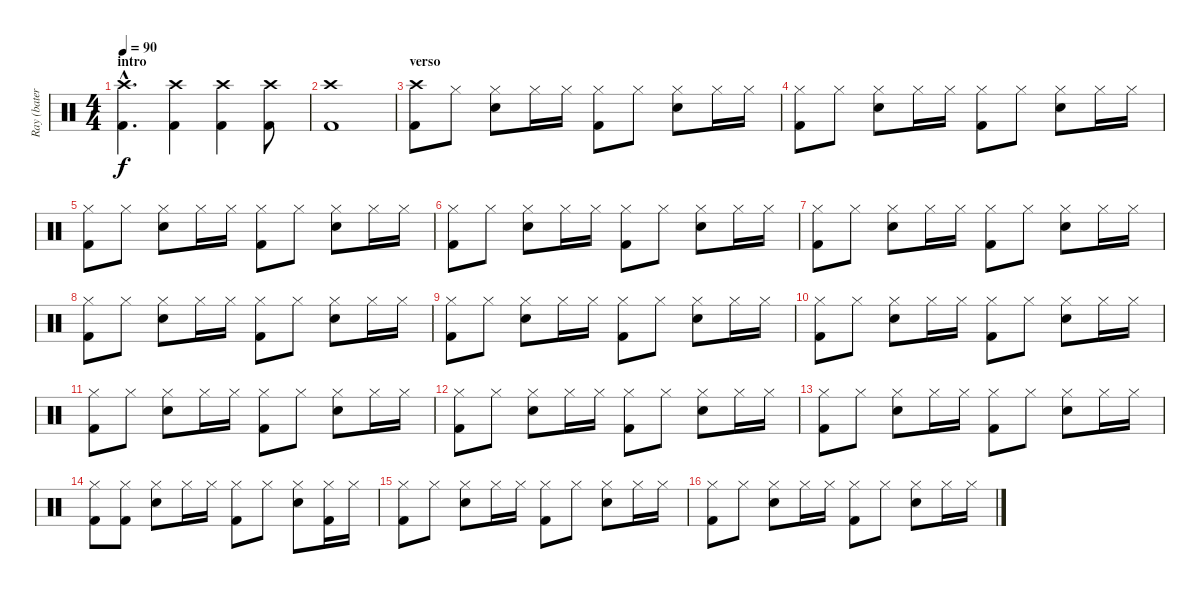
\track ("Ray (batería)" "Ray (bater") {instrument percussion}
\staff {score}
\articulation defaults
\ts (4 4)
\section ("" "intro")
\tempo 90
\clef neutral
\ks c
("Crash high (hit)"{hac} "Kick (hit) 2"{hac}).4{d dy f} ("Crash high (hit)" "Kick (hit) 2").4 ("Crash high (hit)" "Kick (hit) 2").4 ("Crash high (hit)" "Kick (hit) 2").8 |
("Crash high (hit)" "Kick (hit) 2").1 |
\section ("" "verso")
("Crash high (hit)" "Kick (hit) 2").8 "Hi-Hat (closed)".8 ("Hi-Hat (closed)" "Snare (hit) 2").8 "Hi-Hat (closed)".16 "Hi-Hat (closed)".16 ("Hi-Hat (closed)" "Kick (hit) 2").8 "Hi-Hat (closed)".8 ("Hi-Hat (closed)" "Snare (hit) 2").8 "Hi-Hat (closed)".16 "Hi-Hat (closed)".16 |
("Hi-Hat (closed)" "Kick (hit) 2").8 "Hi-Hat (closed)".8 ("Hi-Hat (closed)" "Snare (hit) 2").8 "Hi-Hat (closed)".16 "Hi-Hat (closed)".16 ("Hi-Hat (closed)" "Kick (hit) 2").8 "Hi-Hat (closed)".8 ("Hi-Hat (closed)" "Snare (hit) 2").8 "Hi-Hat (closed)".16 "Hi-Hat (closed)".16 |
("Hi-Hat (closed)" "Kick (hit) 2").8 "Hi-Hat (closed)".8 ("Hi-Hat (closed)" "Snare (hit) 2").8 "Hi-Hat (closed)".16 "Hi-Hat (closed)".16 ("Hi-Hat (closed)" "Kick (hit) 2").8 "Hi-Hat (closed)".8 ("Hi-Hat (closed)" "Snare (hit) 2").8 "Hi-Hat (closed)".16 "Hi-Hat (closed)".16 |
("Hi-Hat (closed)" "Kick (hit) 2").8 "Hi-Hat (closed)".8 ("Hi-Hat (closed)" "Snare (hit) 2").8 "Hi-Hat (closed)".16 "Hi-Hat (closed)".16 ("Hi-Hat (closed)" "Kick (hit) 2").8 "Hi-Hat (closed)".8 ("Hi-Hat (closed)" "Snare (hit) 2").8 "Hi-Hat (closed)".16 "Hi-Hat (closed)".16 |
("Hi-Hat (closed)" "Kick (hit) 2").8 "Hi-Hat (closed)".8 ("Hi-Hat (closed)" "Snare (hit) 2").8 "Hi-Hat (closed)".16 "Hi-Hat (closed)".16 ("Hi-Hat (closed)" "Kick (hit) 2").8 "Hi-Hat (closed)".8 ("Hi-Hat (closed)" "Snare (hit) 2").8 "Hi-Hat (closed)".16 "Hi-Hat (closed)".16 |
("Hi-Hat (closed)" "Kick (hit) 2").8 "Hi-Hat (closed)".8 ("Hi-Hat (closed)" "Snare (hit) 2").8 "Hi-Hat (closed)".16 "Hi-Hat (closed)".16 ("Hi-Hat (closed)" "Kick (hit) 2").8 "Hi-Hat (closed)".8 ("Hi-Hat (closed)" "Snare (hit) 2").8 "Hi-Hat (closed)".16 "Hi-Hat (closed)".16 |
("Hi-Hat (closed)" "Kick (hit) 2").8 "Hi-Hat (closed)".8 ("Hi-Hat (closed)" "Snare (hit) 2").8 "Hi-Hat (closed)".16 "Hi-Hat (closed)".16 ("Hi-Hat (closed)" "Kick (hit) 2").8 "Hi-Hat (closed)".8 ("Hi-Hat (closed)" "Snare (hit) 2").8 "Hi-Hat (closed)".16 "Hi-Hat (closed)".16 |
("Hi-Hat (closed)" "Kick (hit) 2").8 "Hi-Hat (closed)".8 ("Hi-Hat (closed)" "Snare (hit) 2").8 "Hi-Hat (closed)".16 "Hi-Hat (closed)".16 ("Hi-Hat (closed)" "Kick (hit) 2").8 "Hi-Hat (closed)".8 ("Hi-Hat (closed)" "Snare (hit) 2").8 "Hi-Hat (closed)".16 "Hi-Hat (closed)".16 |
("Hi-Hat (closed)" "Kick (hit) 2").8 "Hi-Hat (closed)".8 ("Hi-Hat (closed)" "Snare (hit) 2").8 "Hi-Hat (closed)".16 "Hi-Hat (closed)".16 ("Hi-Hat (closed)" "Kick (hit) 2").8 "Hi-Hat (closed)".8 ("Hi-Hat (closed)" "Snare (hit) 2").8 "Hi-Hat (closed)".16 "Hi-Hat (closed)".16 |
("Hi-Hat (closed)" "Kick (hit) 2").8 "Hi-Hat (closed)".8 ("Hi-Hat (closed)" "Snare (hit) 2").8 "Hi-Hat (closed)".16 "Hi-Hat (closed)".16 ("Hi-Hat (closed)" "Kick (hit) 2").8 "Hi-Hat (closed)".8 ("Hi-Hat (closed)" "Snare (hit) 2").8 "Hi-Hat (closed)".16 "Hi-Hat (closed)".16 |
("Hi-Hat (closed)" "Kick (hit) 2").8 "Hi-Hat (closed)".8 ("Hi-Hat (closed)" "Snare (hit) 2").8 "Hi-Hat (closed)".16 "Hi-Hat (closed)".16 ("Hi-Hat (closed)" "Kick (hit) 2").8 "Hi-Hat (closed)".8 ("Hi-Hat (closed)" "Snare (hit) 2").8 "Hi-Hat (closed)".16 "Hi-Hat (closed)".16 |
("Hi-Hat (closed)" "Kick (hit) 2").8 ("Hi-Hat (closed)" "Kick (hit) 2").8 ("Hi-Hat (closed)" "Snare (hit) 2").8 "Hi-Hat (closed)".16 "Hi-Hat (closed)".16 ("Hi-Hat (closed)" "Kick (hit) 2").8 "Hi-Hat (closed)".8 ("Hi-Hat (closed)" "Snare (hit) 2").8 ("Hi-Hat (closed)" "Kick (hit) 2").16 "Hi-Hat (closed)".16 |
("Hi-Hat (closed)" "Kick (hit) 2").8 "Hi-Hat (closed)".8 ("Hi-Hat (closed)" "Snare (hit) 2").8 "Hi-Hat (closed)".16 "Hi-Hat (closed)".16 ("Hi-Hat (closed)" "Kick (hit) 2").8 "Hi-Hat (closed)".8 ("Hi-Hat (closed)" "Snare (hit) 2").8 "Hi-Hat (closed)".16 "Hi-Hat (closed)".16 |
("Hi-Hat (closed)" "Kick (hit) 2").8 "Hi-Hat (closed)".8 ("Hi-Hat (closed)" "Snare (hit) 2").8 "Hi-Hat (closed)".16 "Hi-Hat (closed)".16 ("Hi-Hat (closed)" "Kick (hit) 2").8 "Hi-Hat (closed)".8 ("Hi-Hat (closed)" "Snare (hit) 2").8 "Hi-Hat (closed)".16 "Hi-Hat (closed)".16
